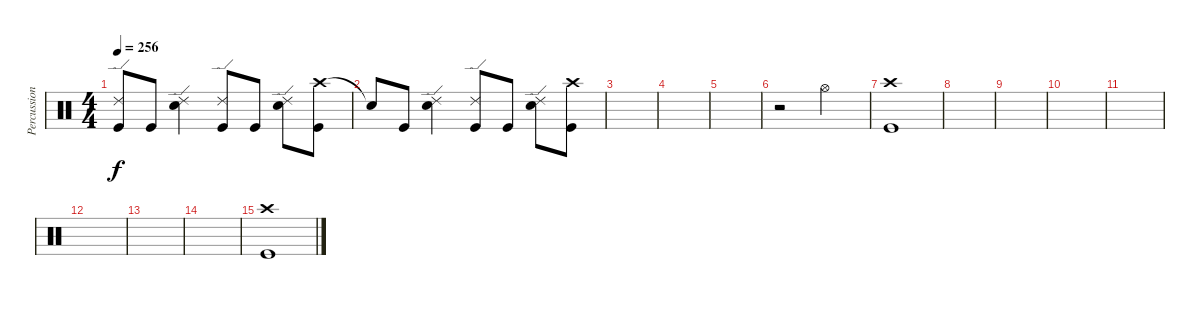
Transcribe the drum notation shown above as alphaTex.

\track ("Percussion" "Percussion") {instrument percussion}
\staff {score}
\articulation defaults
\ts (4 4)
\tempo 256
\clef neutral
\ks c
("Ride (edge) 2"{t} "Kick (hit)"{t}).8{dy f} "Kick (hit)".8 ("Ride (edge) 2" "Electric Snare (hit)").4 ("Ride (edge) 2" "Kick (hit)").8 "Kick (hit)".8 ("Ride (edge) 2" "Electric Snare (hit)").8 ("Crash high (hit)" "Kick (hit)").8 |
"Snare (hit)"{t}.8 "Kick (hit)".8 ("Ride (edge) 2" "Electric Snare (hit)").4 ("Ride (edge) 2" "Kick (hit)").8 "Kick (hit)".8 ("Ride (edge) 2" "Electric Snare (hit)").8 ("Crash high (hit)" "Kick (hit)").8 |
|
|
|
r.2 "Hi-Hat (open)".2 |
("Crash high (hit)" "Kick (hit)").1 |
|
|
|
|
|
|
|
("Crash high (hit)" "Kick (hit)").1
